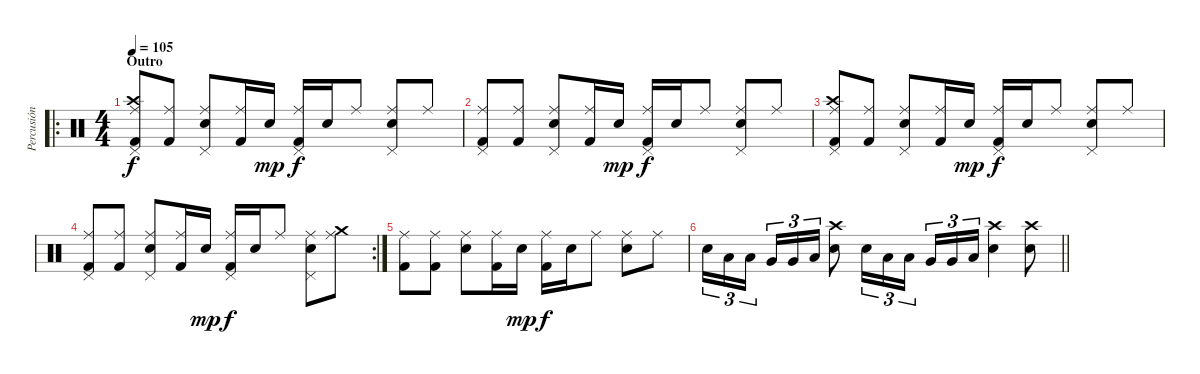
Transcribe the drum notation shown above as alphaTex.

\track ("Percusión" "Percusión") {instrument percussion}
\staff {score}
\articulation defaults
\ro
\ts (4 4)
\section ("" "Outro")
\tempo 105
\clef neutral
\ks c
("Pedal Hi-Hat (hit)" "Crash high (hit)" "Ride (middle)" "Kick (hit) 2").8{dy f} ("Ride (middle)" "Kick (hit) 2").8 ("Pedal Hi-Hat (hit)" "Ride (middle)" "Electric Snare (hit)").8 ("Ride (middle)" "Kick (hit) 2").16 "Electric Snare (hit)".16{dy mp} ("Pedal Hi-Hat (hit)" "Ride (middle)" "Kick (hit) 2").16{dy f} "Electric Snare (hit)".16 "Ride (middle)".8 ("Pedal Hi-Hat (hit)" "Ride (middle)" "Electric Snare (hit)").8 "Ride (middle)".8 |
("Pedal Hi-Hat (hit)" "Ride (middle)" "Kick (hit) 2").8 ("Ride (middle)" "Kick (hit) 2").8 ("Pedal Hi-Hat (hit)" "Ride (middle)" "Electric Snare (hit)").8 ("Ride (middle)" "Kick (hit) 2").16 "Electric Snare (hit)".16{dy mp} ("Pedal Hi-Hat (hit)" "Ride (middle)" "Kick (hit) 2").16{dy f} "Electric Snare (hit)".16 "Ride (middle)".8 ("Pedal Hi-Hat (hit)" "Ride (middle)" "Electric Snare (hit)").8 "Ride (middle)".8 |
("Pedal Hi-Hat (hit)" "Crash high (hit)" "Ride (middle)" "Kick (hit) 2").8 ("Ride (middle)" "Kick (hit) 2").8 ("Pedal Hi-Hat (hit)" "Ride (middle)" "Electric Snare (hit)").8 ("Ride (middle)" "Kick (hit) 2").16 "Electric Snare (hit)".16{dy mp} ("Pedal Hi-Hat (hit)" "Ride (middle)" "Kick (hit) 2").16{dy f} "Electric Snare (hit)".16 "Ride (middle)".8 ("Pedal Hi-Hat (hit)" "Ride (middle)" "Electric Snare (hit)").8 "Ride (middle)".8 |
\rc 2
("Pedal Hi-Hat (hit)" "Ride (middle)" "Kick (hit) 2").8 ("Ride (middle)" "Kick (hit) 2").8 ("Pedal Hi-Hat (hit)" "Ride (middle)" "Electric Snare (hit)").8 ("Ride (middle)" "Kick (hit) 2").16 "Electric Snare (hit)".16{dy mp} ("Pedal Hi-Hat (hit)" "Ride (middle)" "Kick (hit) 2").16{dy f} "Electric Snare (hit)".16 "Ride (middle)".8 ("Pedal Hi-Hat (hit)" "Ride (middle)" "Electric Snare (hit)").8 ("Crash medium (hit)" "Ride (middle)").8 |
("Ride (middle)" "Kick (hit) 2").8 ("Ride (middle)" "Kick (hit) 2").8 ("Ride (middle)" "Electric Snare (hit)").8 ("Ride (middle)" "Kick (hit) 2").16 "Electric Snare (hit)".16{dy mp} ("Ride (middle)" "Kick (hit) 2").16{dy f} "Electric Snare (hit)".16 "Ride (middle)".8 ("Ride (middle)" "Electric Snare (hit)").8 "Ride (middle)".8 |
\barLineRight lightlight "Electric Snare (hit)".16{tu (3 2)} "Low Tom (hit)".16{tu (3 2)} "Low Tom (hit)".16{tu (3 2) beam splitsecondary} "Very Low Tom (hit)".16{tu (3 2)} "Very Low Tom (hit)".16{tu (3 2)} "Low Floor Tom (hit)".16{tu (3 2)}
("Crash high (hit)" "Electric Snare (hit)").8 "Electric Snare (hit)".16{tu (3 2)} "Low Tom (hit)".16{tu (3 2)} "Low Tom (hit)".16{tu (3 2)} "Very Low Tom (hit)".16{tu (3 2)} "Very Low Tom (hit)".16{tu (3 2)} "Low Floor Tom (hit)".16{tu (3 2)} ("Crash high (hit)" "Electric Snare (hit)").4 ("Crash high (hit)" "Electric Snare (hit)").8
